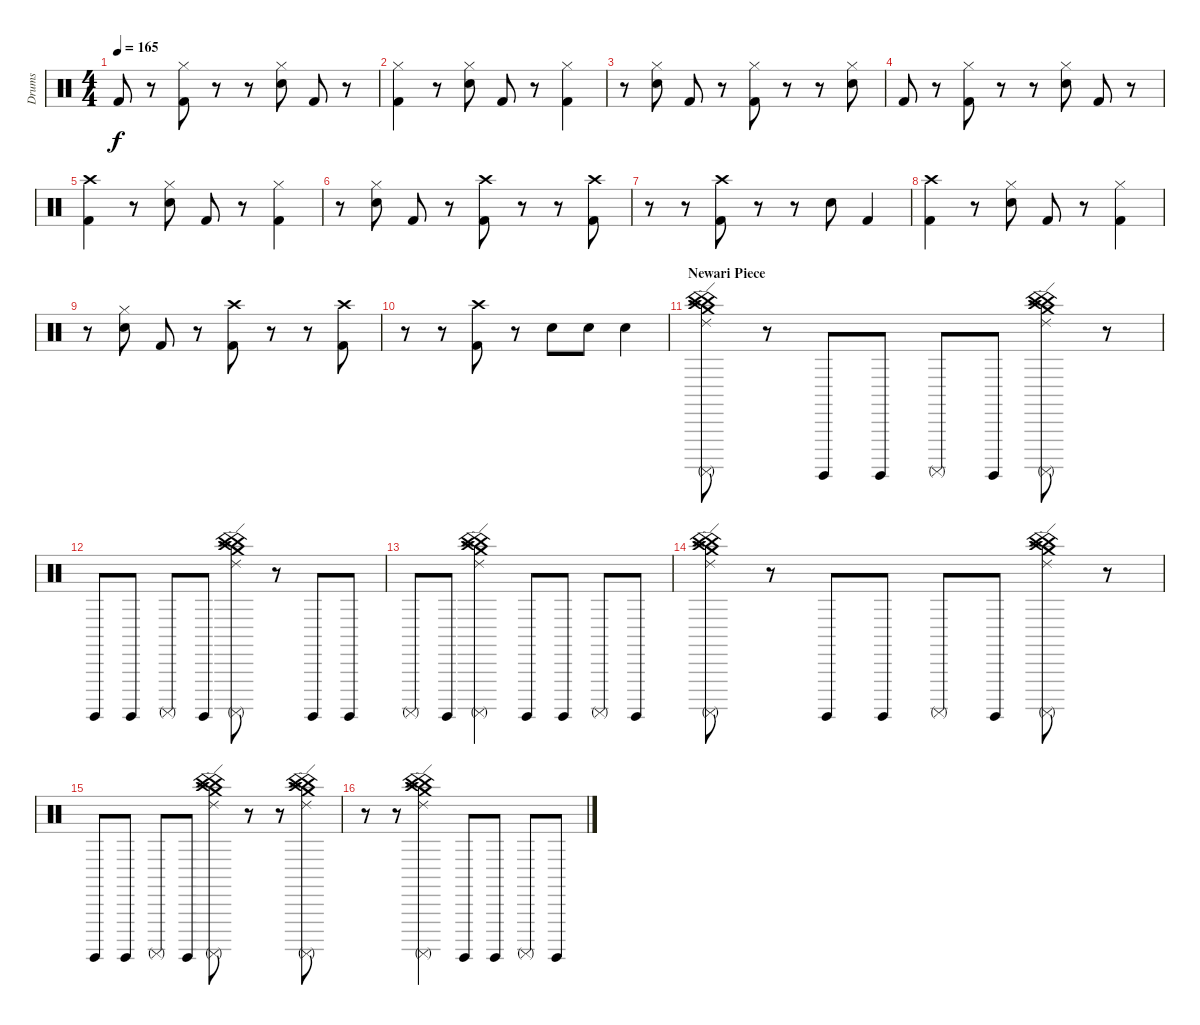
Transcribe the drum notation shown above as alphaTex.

\track ("Drums" "Drums") {instrument percussion}
\staff {score}
\articulation defaults
\ts (4 4)
\tempo 165
\clef neutral
\ks c "Kick (hit) 2".8{dy f}
r.8 ("Hi-Hat (closed)" "Kick (hit) 2").8 r.8 r.8 ("Hi-Hat (closed)" "Electric Snare (hit)").8 "Kick (hit) 2".8 r.8 |
("Kick (hit) 2" "Hi-Hat (closed)").4 r.8 ("Electric Snare (hit)" "Hi-Hat (closed)").8 "Kick (hit) 2".8 r.8 ("Kick (hit) 2" "Hi-Hat (closed)").4 |
r.8 ("Electric Snare (hit)" "Hi-Hat (closed)").8 "Kick (hit) 2".8 r.8 ("Kick (hit) 2" "Hi-Hat (closed)").8 r.8 r.8 ("Hi-Hat (closed)" "Electric Snare (hit)").8 |
"Kick (hit) 2".8 r.8 ("Hi-Hat (closed)" "Kick (hit) 2").8 r.8 r.8 ("Hi-Hat (closed)" "Electric Snare (hit)").8 "Kick (hit) 2".8 r.8 |
("Kick (hit) 2" "Crash high (hit)").4 r.8 ("Electric Snare (hit)" "Hi-Hat (closed)").8 "Kick (hit) 2".8 r.8 ("Kick (hit) 2" "Hi-Hat (closed)").4 |
r.8 ("Electric Snare (hit)" "Hi-Hat (closed)").8 "Kick (hit) 2".8 r.8 ("Crash high (hit)" "Kick (hit) 2").8 r.8 r.8 ("Crash high (hit)" "Kick (hit) 2").8 |
r.8 r.8 ("Crash high (hit)" "Kick (hit) 2").8 r.8 r.8 "Electric Snare (hit)".8 "Kick (hit) 2".4 |
("Crash high (hit)" "Kick (hit) 2").4 r.8 ("Electric Snare (hit)" "Hi-Hat (closed)").8 "Kick (hit) 2".8 r.8 ("Kick (hit) 2" "Hi-Hat (closed)").4 |
r.8 ("Electric Snare (hit)" "Hi-Hat (closed)").8 "Kick (hit) 2".8 r.8 ("Crash high (hit)" "Kick (hit) 2").8 r.8 r.8 ("Crash high (hit)" "Kick (hit) 2").8 |
r.8 r.8 ("Crash high (hit)" "Kick (hit) 2").8 r.8 "Electric Snare (hit)".8 "Electric Snare (hit)".8 "Electric Snare (hit)".4 |
\section ("" "Newari Piece")
("Surdo (mute)" "China (hit)" "Crash high (hit)" "Crash medium (hit)" "Ride (edge) 2" "China (hit)").8 r.8 "Surdo (hit)".8 "Surdo (hit)".8 "Surdo (mute)".8 "Surdo (hit)".8 ("Surdo (mute)" "China (hit)" "Crash high (hit)" "Crash medium (hit)" "Ride (edge) 2" "China (hit)").8 r.8 |
"Surdo (hit)".8 "Surdo (hit)".8 "Surdo (mute)".8 "Surdo (hit)".8 ("Surdo (mute)" "China (hit)" "Crash high (hit)" "Crash medium (hit)" "Ride (edge) 2" "China (hit)").8 r.8 "Surdo (hit)".8 "Surdo (hit)".8 |
"Surdo (mute)".8 "Surdo (hit)".8 ("Surdo (mute)" "China (hit)" "Crash high (hit)" "Crash medium (hit)" "Ride (edge) 2" "China (hit)").4 "Surdo (hit)".8 "Surdo (hit)".8 "Surdo (mute)".8 "Surdo (hit)".8 |
("Surdo (mute)" "China (hit)" "Crash high (hit)" "Crash medium (hit)" "Ride (edge) 2" "China (hit)").8 r.8 "Surdo (hit)".8 "Surdo (hit)".8 "Surdo (mute)".8 "Surdo (hit)".8 ("Surdo (mute)" "China (hit)" "Crash high (hit)" "Crash medium (hit)" "Ride (edge) 2" "China (hit)").8 r.8 |
"Surdo (hit)".8 "Surdo (hit)".8 "Surdo (mute)".8 "Surdo (hit)".8 ("Surdo (mute)" "China (hit)" "Crash high (hit)" "Crash medium (hit)" "Ride (edge) 2" "China (hit)").8 r.8 r.8 ("Surdo (mute)" "China (hit)" "Crash high (hit)" "Crash medium (hit)" "Ride (edge) 2" "China (hit)").8 |
r.8 r.8 ("Surdo (mute)" "China (hit)" "Crash high (hit)" "Crash medium (hit)" "Ride (edge) 2" "China (hit)").4 "Surdo (hit)".8 "Surdo (hit)".8 "Surdo (mute)".8 "Surdo (hit)".8
